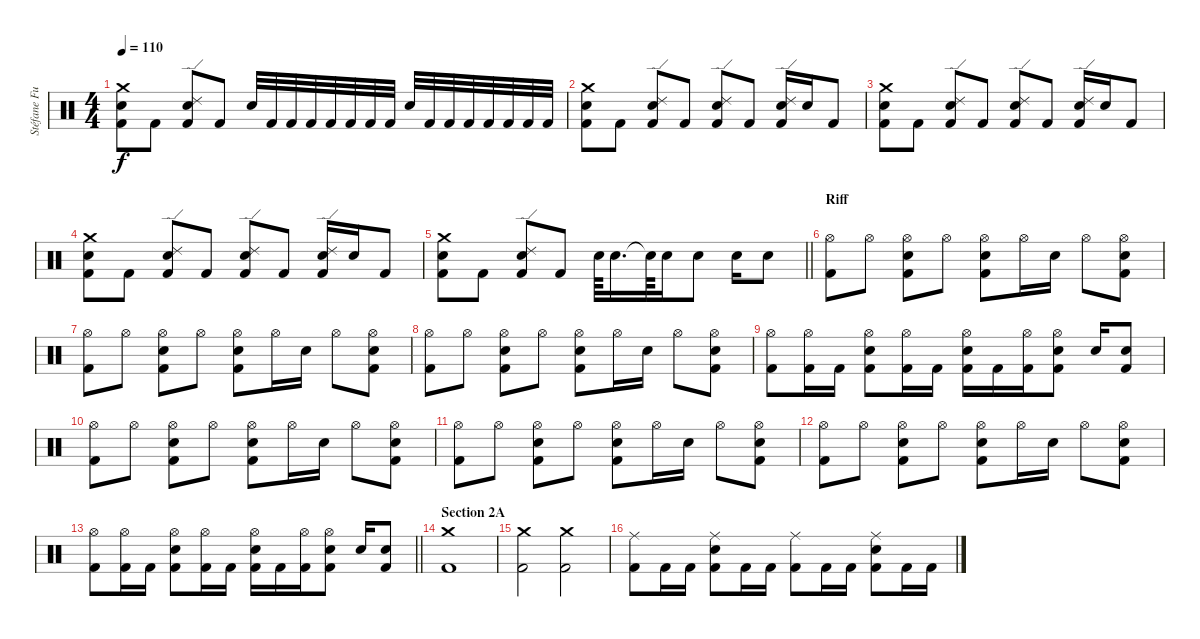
\track ("Stéfane Funebre" "Stéfane Fu") {instrument percussion}
\staff {score}
\articulation defaults
\ts (4 4)
\tempo 110
\clef neutral
\ks c
("Crash medium (hit)" "Snare (hit) 2" "Kick (hit) 2").8{dy f} "Kick (hit) 2".8 ("Ride (edge) 2" "Snare (hit) 2" "Kick (hit) 2").8 "Kick (hit) 2".8 "Snare (hit) 2".32 "Kick (hit) 2".32 "Kick (hit) 2".32 "Kick (hit) 2".32 "Kick (hit) 2".32 "Kick (hit) 2".32 "Kick (hit) 2".32 "Kick (hit) 2".32 "Snare (hit) 2".32 "Kick (hit) 2".32 "Kick (hit) 2".32 "Kick (hit) 2".32 "Kick (hit) 2".32 "Kick (hit) 2".32 "Kick (hit) 2".32 "Kick (hit) 2".32 |
("Crash medium (hit)" "Snare (hit) 2" "Kick (hit) 2").8 "Kick (hit) 2".8 ("Ride (edge) 2" "Snare (hit) 2" "Kick (hit) 2").8 "Kick (hit) 2".8 ("Ride (edge) 2" "Snare (hit) 2" "Kick (hit) 2").8 "Kick (hit) 2".8 ("Ride (edge) 2" "Snare (hit) 2" "Kick (hit) 2").16 "Snare (hit) 2".16 "Kick (hit) 2".8 |
("Crash medium (hit)" "Snare (hit) 2" "Kick (hit) 2").8 "Kick (hit) 2".8 ("Ride (edge) 2" "Snare (hit) 2" "Kick (hit) 2").8 "Kick (hit) 2".8 ("Ride (edge) 2" "Snare (hit) 2" "Kick (hit) 2").8 "Kick (hit) 2".8 ("Ride (edge) 2" "Snare (hit) 2" "Kick (hit) 2").16 "Snare (hit) 2".16 "Kick (hit) 2".8 |
("Crash medium (hit)" "Snare (hit) 2" "Kick (hit) 2").8 "Kick (hit) 2".8 ("Ride (edge) 2" "Snare (hit) 2" "Kick (hit) 2").8 "Kick (hit) 2".8 ("Ride (edge) 2" "Snare (hit) 2" "Kick (hit) 2").8 "Kick (hit) 2".8 ("Ride (edge) 2" "Snare (hit) 2" "Kick (hit) 2").16 "Snare (hit) 2".16 "Kick (hit) 2".8 |
\barLineRight lightlight
("Crash medium (hit)" "Snare (hit) 2" "Kick (hit) 2").8 "Kick (hit) 2".8 ("Ride (edge) 2" "Snare (hit) 2" "Kick (hit) 2").8 "Kick (hit) 2".8 "Snare (hit) 2".64 "Snare (hit) 2".16{d} "Snare (hit)"{t}.64 "Snare (hit) 2".16 "Snare (hit) 2".8 "Snare (hit) 2".16 "Snare (hit) 2".8 |
\section ("" "Riff")
("Hi-Hat (open)" "Kick (hit) 2").8 "Hi-Hat (open)".8 ("Hi-Hat (open)" "Snare (hit) 2" "Kick (hit) 2").8 "Hi-Hat (open)".8 ("Hi-Hat (open)" "Snare (hit) 2" "Kick (hit) 2").8 "Hi-Hat (open)".16 "Snare (hit) 2".16 "Hi-Hat (open)".8 ("Hi-Hat (open)" "Snare (hit) 2" "Kick (hit) 2").8 |
("Hi-Hat (open)" "Kick (hit) 2").8 "Hi-Hat (open)".8 ("Hi-Hat (open)" "Snare (hit) 2" "Kick (hit) 2").8 "Hi-Hat (open)".8 ("Hi-Hat (open)" "Snare (hit) 2" "Kick (hit) 2").8 "Hi-Hat (open)".16 "Snare (hit) 2".16 "Hi-Hat (open)".8 ("Hi-Hat (open)" "Snare (hit) 2" "Kick (hit) 2").8 |
("Hi-Hat (open)" "Kick (hit) 2").8 "Hi-Hat (open)".8 ("Hi-Hat (open)" "Snare (hit) 2" "Kick (hit) 2").8 "Hi-Hat (open)".8 ("Hi-Hat (open)" "Snare (hit) 2" "Kick (hit) 2").8 "Hi-Hat (open)".16 "Snare (hit) 2".16 "Hi-Hat (open)".8 ("Hi-Hat (open)" "Snare (hit) 2" "Kick (hit) 2").8 |
("Hi-Hat (open)" "Kick (hit) 2").8 ("Hi-Hat (open)" "Kick (hit) 2").16 "Kick (hit) 2".16 ("Hi-Hat (open)" "Snare (hit) 2" "Kick (hit) 2").8 ("Hi-Hat (open)" "Kick (hit) 2").16 "Kick (hit) 2".16 ("Hi-Hat (open)" "Snare (hit) 2" "Kick (hit) 2").16 "Kick (hit) 2".16 ("Hi-Hat (open)" "Kick (hit) 2").16 ("Hi-Hat (open)" "Snare (hit) 2" "Kick (hit) 2").8 "Snare (hit) 2".16 ("Snare (hit) 2" "Kick (hit) 2").8 |
("Hi-Hat (open)" "Kick (hit) 2").8 "Hi-Hat (open)".8 ("Hi-Hat (open)" "Snare (hit) 2" "Kick (hit) 2").8 "Hi-Hat (open)".8 ("Hi-Hat (open)" "Snare (hit) 2" "Kick (hit) 2").8 "Hi-Hat (open)".16 "Snare (hit) 2".16 "Hi-Hat (open)".8 ("Hi-Hat (open)" "Snare (hit) 2" "Kick (hit) 2").8 |
("Hi-Hat (open)" "Kick (hit) 2").8 "Hi-Hat (open)".8 ("Hi-Hat (open)" "Snare (hit) 2" "Kick (hit) 2").8 "Hi-Hat (open)".8 ("Hi-Hat (open)" "Snare (hit) 2" "Kick (hit) 2").8 "Hi-Hat (open)".16 "Snare (hit) 2".16 "Hi-Hat (open)".8 ("Hi-Hat (open)" "Snare (hit) 2" "Kick (hit) 2").8 |
("Hi-Hat (open)" "Kick (hit) 2").8 "Hi-Hat (open)".8 ("Hi-Hat (open)" "Snare (hit) 2" "Kick (hit) 2").8 "Hi-Hat (open)".8 ("Hi-Hat (open)" "Snare (hit) 2" "Kick (hit) 2").8 "Hi-Hat (open)".16 "Snare (hit) 2".16 "Hi-Hat (open)".8 ("Hi-Hat (open)" "Snare (hit) 2" "Kick (hit) 2").8 |
\barLineRight lightlight
("Hi-Hat (open)" "Kick (hit) 2").8 ("Hi-Hat (open)" "Kick (hit) 2").16 "Kick (hit) 2".16 ("Hi-Hat (open)" "Snare (hit) 2" "Kick (hit) 2").8 ("Hi-Hat (open)" "Kick (hit) 2").16 "Kick (hit) 2".16 ("Hi-Hat (open)" "Snare (hit) 2" "Kick (hit) 2").16 "Kick (hit) 2".16 ("Hi-Hat (open)" "Kick (hit) 2").16 ("Hi-Hat (open)" "Snare (hit) 2" "Kick (hit) 2").8 "Snare (hit) 2".16 ("Snare (hit) 2" "Kick (hit) 2").8 |
\section ("" "Section 2A")
("Crash medium (hit)" "Kick (hit) 2").1 |
("Crash medium (hit)" "Kick (hit) 2").2 ("Crash medium (hit)" "Kick (hit) 2").2 |
("Ride (middle)" "Kick (hit) 2").8 "Kick (hit) 2".16 "Kick (hit) 2".16 ("Ride (middle)" "Snare (hit) 2" "Kick (hit) 2").8 "Kick (hit) 2".16 "Kick (hit) 2".16 ("Ride (middle)" "Kick (hit) 2").8 "Kick (hit) 2".16 "Kick (hit) 2".16 ("Ride (middle)" "Snare (hit) 2" "Kick (hit) 2").8 "Kick (hit) 2".16 "Kick (hit) 2".16
